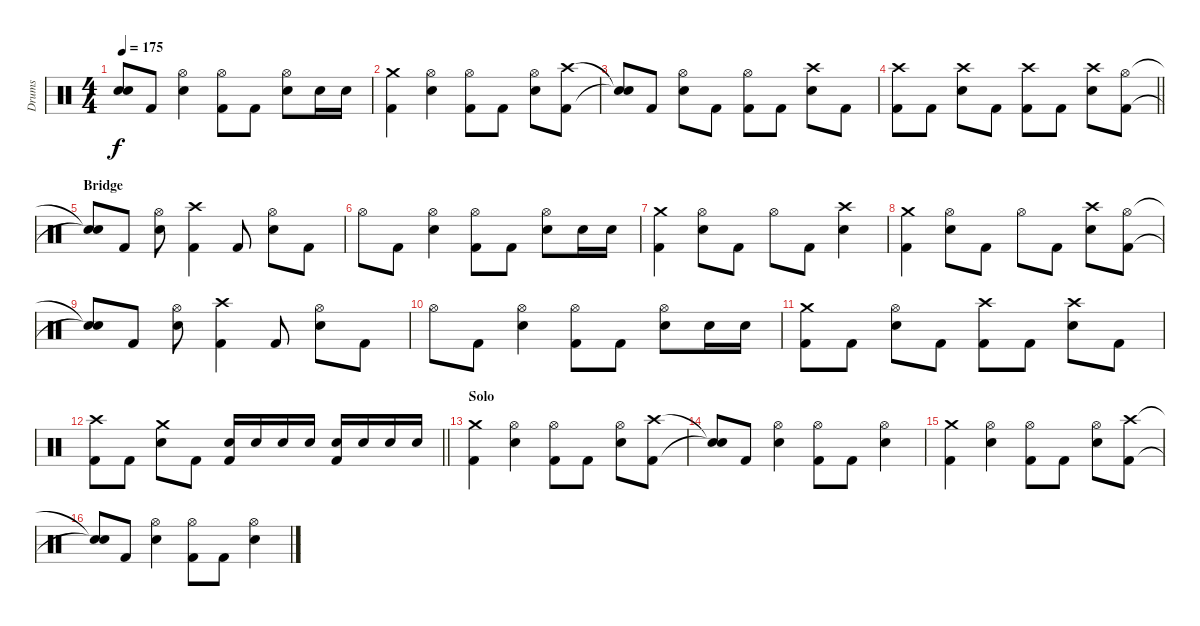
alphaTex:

\track ("Drums" "Drums") {instrument percussion}
\staff {score}
\articulation defaults
\ts (4 4)
\tempo 175
\clef neutral
\ks c
("Snare (hit)"{t} "Snare (hit)"{t}).8{dy f} "Kick (hit) 2".8 ("Hi-Hat (open)" "Electric Snare (hit)").4 ("Hi-Hat (open)" "Kick (hit) 2").8 "Kick (hit) 2".8 ("Hi-Hat (open)" "Electric Snare (hit)").8 "Electric Snare (hit)".16 "Electric Snare (hit)".16 |
("Crash medium (hit)" "Kick (hit) 2").4 ("Hi-Hat (open)" "Electric Snare (hit)").4 ("Hi-Hat (open)" "Kick (hit) 2").8 "Kick (hit) 2".8 ("Hi-Hat (open)" "Electric Snare (hit)").8 ("Crash high (hit)" "Kick (hit) 2").8 |
("Snare (hit)"{t} "Snare (hit)"{t}).8 "Kick (hit) 2".8 ("Hi-Hat (open)" "Electric Snare (hit)").8 "Kick (hit) 2".8 ("Hi-Hat (open)" "Kick (hit) 2").8 "Kick (hit) 2".8 ("Crash high (hit)" "Electric Snare (hit)").8 "Kick (hit) 2".8 |
\barLineRight lightlight
("Crash high (hit)" "Kick (hit) 2").8 "Kick (hit) 2".8 ("Crash high (hit)" "Electric Snare (hit)").8 "Kick (hit) 2".8 ("Crash high (hit)" "Kick (hit) 2").8 "Kick (hit) 2".8 ("Crash high (hit)" "Electric Snare (hit)").8 ("Hi-Hat (open)" "Kick (hit) 2").8 |
\section ("" "Bridge")
("Snare (hit)"{t} "Snare (hit)"{t}).8 "Kick (hit) 2".8 ("Hi-Hat (open)" "Electric Snare (hit)").8 ("Crash high (hit)" "Kick (hit) 2").4 "Kick (hit) 2".8 ("Hi-Hat (open)" "Electric Snare (hit)").8 "Kick (hit) 2".8 |
"Hi-Hat (open)".8 "Kick (hit) 2".8 ("Hi-Hat (open)" "Electric Snare (hit)").4 ("Hi-Hat (open)" "Kick (hit) 2").8 "Kick (hit) 2".8 ("Hi-Hat (open)" "Electric Snare (hit)").8 "Electric Snare (hit)".16 "Electric Snare (hit)".16 |
("Crash medium (hit)" "Kick (hit) 2").4 ("Hi-Hat (open)" "Electric Snare (hit)").8 "Kick (hit) 2".8 "Hi-Hat (open)".8 "Kick (hit) 2".8 ("Crash high (hit)" "Electric Snare (hit)").4 |
("Crash medium (hit)" "Kick (hit) 2").4 ("Hi-Hat (open)" "Electric Snare (hit)").8 "Kick (hit) 2".8 "Hi-Hat (open)".8 "Kick (hit) 2".8 ("Crash high (hit)" "Electric Snare (hit)").8 ("Hi-Hat (open)" "Kick (hit) 2").8 |
("Snare (hit)"{t} "Snare (hit)"{t}).8 "Kick (hit) 2".8 ("Hi-Hat (open)" "Electric Snare (hit)").8 ("Crash high (hit)" "Kick (hit) 2").4 "Kick (hit) 2".8 ("Hi-Hat (open)" "Electric Snare (hit)").8 "Kick (hit) 2".8 |
"Hi-Hat (open)".8 "Kick (hit) 2".8 ("Hi-Hat (open)" "Electric Snare (hit)").4 ("Hi-Hat (open)" "Kick (hit) 2").8 "Kick (hit) 2".8 ("Hi-Hat (open)" "Electric Snare (hit)").8 "Electric Snare (hit)".16 "Electric Snare (hit)".16 |
("Crash medium (hit)" "Kick (hit) 2").8 "Kick (hit) 2".8 ("Hi-Hat (open)" "Electric Snare (hit)").8 "Kick (hit) 2".8 ("Crash high (hit)" "Kick (hit) 2").8 "Kick (hit) 2".8 ("Crash high (hit)" "Electric Snare (hit)").8 "Kick (hit) 2".8 |
\barLineRight lightlight
("Crash high (hit)" "Kick (hit) 2").8 "Kick (hit) 2".8 ("Crash medium (hit)" "Electric Snare (hit)").8 "Kick (hit) 2".8 ("Electric Snare (hit)" "Kick (hit) 2").16 "Electric Snare (hit)".16 "Electric Snare (hit)".16 "Electric Snare (hit)".16 ("Electric Snare (hit)" "Kick (hit) 2").16 "Electric Snare (hit)".16 "Electric Snare (hit)".16 "Electric Snare (hit)".16 |
\section ("" "Solo")
("Crash medium (hit)" "Kick (hit) 2").4 ("Hi-Hat (open)" "Electric Snare (hit)").4 ("Hi-Hat (open)" "Kick (hit) 2").8 "Kick (hit) 2".8 ("Hi-Hat (open)" "Electric Snare (hit)").8 ("Crash high (hit)" "Kick (hit) 2").8 |
("Snare (hit)"{t} "Snare (hit)"{t}).8 "Kick (hit) 2".8 ("Hi-Hat (open)" "Electric Snare (hit)").4 ("Hi-Hat (open)" "Kick (hit) 2").8 "Kick (hit) 2".8 ("Hi-Hat (open)" "Electric Snare (hit)").4 |
("Crash medium (hit)" "Kick (hit) 2").4 ("Hi-Hat (open)" "Electric Snare (hit)").4 ("Hi-Hat (open)" "Kick (hit) 2").8 "Kick (hit) 2".8 ("Hi-Hat (open)" "Electric Snare (hit)").8 ("Crash high (hit)" "Kick (hit) 2").8 |
("Snare (hit)"{t} "Snare (hit)"{t}).8 "Kick (hit) 2".8 ("Hi-Hat (open)" "Electric Snare (hit)").4 ("Hi-Hat (open)" "Kick (hit) 2").8 "Kick (hit) 2".8 ("Hi-Hat (open)" "Electric Snare (hit)").4
